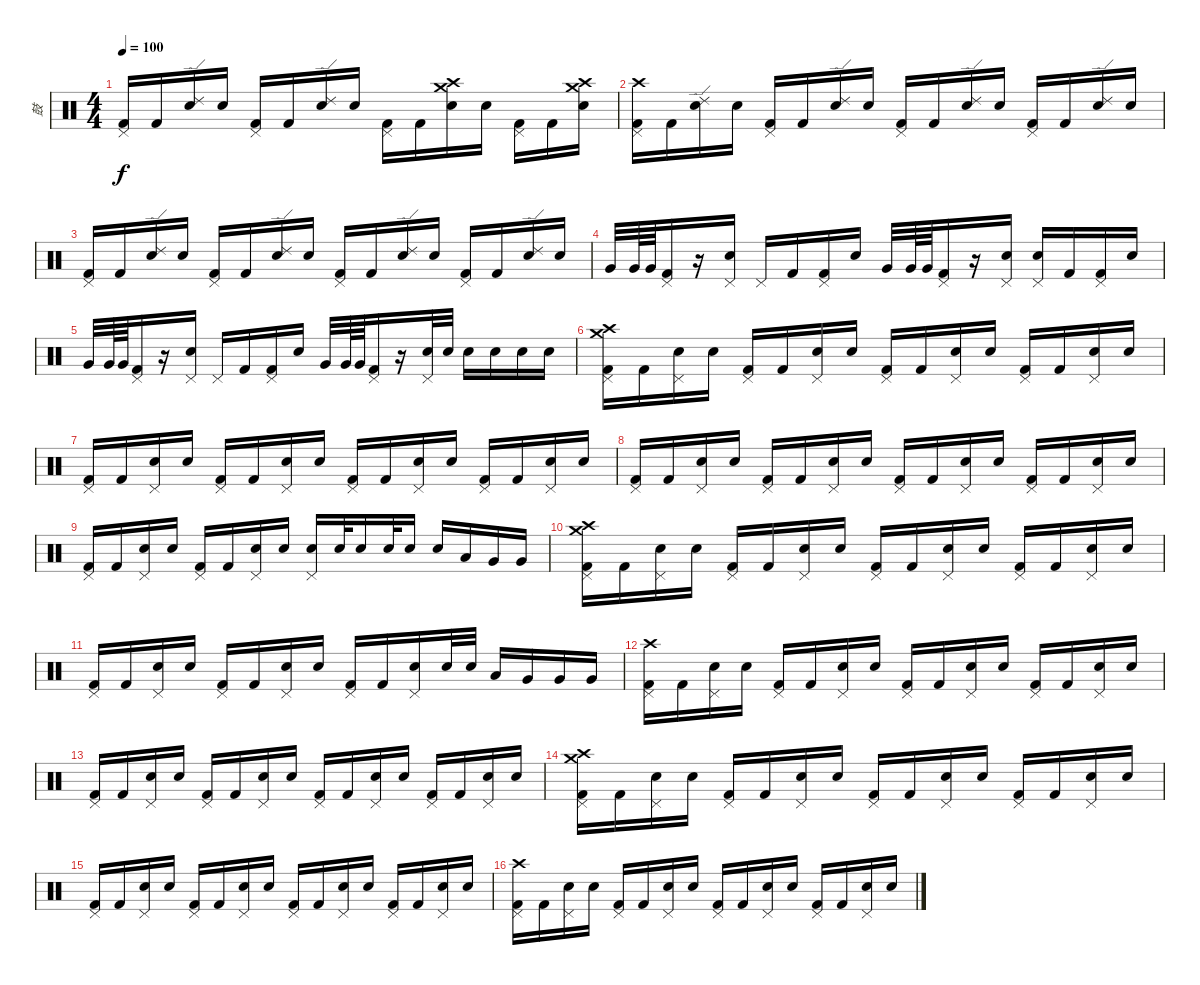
\track ("鼓" "鼓") {instrument percussion}
\staff {score}
\articulation defaults
\ts (4 4)
\tempo 100
\clef neutral
\ks c
("Pedal Hi-Hat (hit)" "Kick (hit) 2").16{dy f} "Kick (hit) 2".16 ("Ride (edge) 2" "Electric Snare (hit)").16 "Snare (hit)".16 ("Pedal Hi-Hat (hit)" "Kick (hit) 2").16 "Kick (hit) 2".16 ("Ride (edge) 2" "Electric Snare (hit)").16 "Snare (hit)".16 ("Pedal Hi-Hat (hit)" "Kick (hit) 2").16 "Kick (hit) 2".16 ("Crash medium (hit)" "Crash high (hit)" "Electric Snare (hit)").16 "Snare (hit)".16 ("Pedal Hi-Hat (hit)" "Kick (hit) 2").16 "Kick (hit) 2".16 ("Crash medium (hit)" "Crash high (hit)" "Electric Snare (hit)").16 |
("Crash high (hit)" "Pedal Hi-Hat (hit)" "Kick (hit) 2").16 "Kick (hit) 2".16 ("Ride (edge) 2" "Electric Snare (hit)").16 "Snare (hit)".16 ("Pedal Hi-Hat (hit)" "Kick (hit) 2").16 "Kick (hit) 2".16 ("Ride (edge) 2" "Electric Snare (hit)").16 "Snare (hit)".16 ("Pedal Hi-Hat (hit)" "Kick (hit) 2").16 "Kick (hit) 2".16 ("Ride (edge) 2" "Electric Snare (hit)").16 "Snare (hit)".16 ("Pedal Hi-Hat (hit)" "Kick (hit) 2").16 "Kick (hit) 2".16 ("Ride (edge) 2" "Electric Snare (hit)").16 "Snare (hit)".16 |
("Pedal Hi-Hat (hit)" "Kick (hit) 2").16 "Kick (hit) 2".16 ("Ride (edge) 2" "Electric Snare (hit)").16 "Snare (hit)".16 ("Pedal Hi-Hat (hit)" "Kick (hit) 2").16 "Kick (hit) 2".16 ("Ride (edge) 2" "Electric Snare (hit)").16 "Snare (hit)".16 ("Pedal Hi-Hat (hit)" "Kick (hit) 2").16 "Kick (hit) 2".16 ("Ride (edge) 2" "Electric Snare (hit)").16 "Snare (hit)".16 ("Pedal Hi-Hat (hit)" "Kick (hit) 2").16 "Kick (hit) 2".16 ("Ride (edge) 2" "Electric Snare (hit)").16 "Snare (hit)".16 |
"Very Low Tom (hit)".32 "Very Low Tom (hit)".64 "Very Low Tom (hit)".64 ("Pedal Hi-Hat (hit)" "Kick (hit) 2").16 r.16 ("Pedal Hi-Hat (hit)" "Electric Snare (hit)").16 "Pedal Hi-Hat (hit)".16 "Kick (hit) 2".16 ("Pedal Hi-Hat (hit)" "Kick (hit) 2").16 "Electric Snare (hit)".16 "Very Low Tom (hit)".32 "Very Low Tom (hit)".64 "Very Low Tom (hit)".64 ("Pedal Hi-Hat (hit)" "Kick (hit) 2").16 r.16 ("Pedal Hi-Hat (hit)" "Electric Snare (hit)").16 ("Pedal Hi-Hat (hit)" "Snare (hit)").16 "Kick (hit) 2".16 ("Pedal Hi-Hat (hit)" "Kick (hit) 2").16 "Electric Snare (hit)".16 |
"Very Low Tom (hit)".32 "Very Low Tom (hit)".64 "Very Low Tom (hit)".64 ("Pedal Hi-Hat (hit)" "Kick (hit) 2").16 r.16 ("Pedal Hi-Hat (hit)" "Electric Snare (hit)").16 "Pedal Hi-Hat (hit)".16 "Kick (hit) 2".16 ("Pedal Hi-Hat (hit)" "Kick (hit) 2").16 "Electric Snare (hit)".16 "Very Low Tom (hit)".32 "Very Low Tom (hit)".64 "Very Low Tom (hit)".64 ("Pedal Hi-Hat (hit)" "Kick (hit) 2").16 r.16 ("Pedal Hi-Hat (hit)" "Electric Snare (hit)").32 "Electric Snare (hit)".32 "Electric Snare (hit)".16 "Electric Snare (hit)".16 "Electric Snare (hit)".16 "Electric Snare (hit)".16 |
("Crash medium (hit)" "Crash high (hit)" "Pedal Hi-Hat (hit)" "Kick (hit) 2").16 "Kick (hit) 2".16 ("Pedal Hi-Hat (hit)" "Electric Snare (hit)").16 "Snare (hit)".16 ("Pedal Hi-Hat (hit)" "Kick (hit) 2").16 "Kick (hit) 2".16 ("Pedal Hi-Hat (hit)" "Electric Snare (hit)").16 "Snare (hit)".16 ("Pedal Hi-Hat (hit)" "Kick (hit) 2").16 "Kick (hit) 2".16 ("Pedal Hi-Hat (hit)" "Electric Snare (hit)").16 "Snare (hit)".16 ("Pedal Hi-Hat (hit)" "Kick (hit) 2").16 "Kick (hit) 2".16 ("Pedal Hi-Hat (hit)" "Electric Snare (hit)").16 "Snare (hit)".16 |
("Pedal Hi-Hat (hit)" "Kick (hit) 2").16 "Kick (hit) 2".16 ("Pedal Hi-Hat (hit)" "Electric Snare (hit)").16 "Snare (hit)".16 ("Pedal Hi-Hat (hit)" "Kick (hit) 2").16 "Kick (hit) 2".16 ("Pedal Hi-Hat (hit)" "Electric Snare (hit)").16 "Snare (hit)".16 ("Pedal Hi-Hat (hit)" "Kick (hit) 2").16 "Kick (hit) 2".16 ("Pedal Hi-Hat (hit)" "Electric Snare (hit)").16 "Snare (hit)".16 ("Pedal Hi-Hat (hit)" "Kick (hit) 2").16 "Kick (hit) 2".16 ("Pedal Hi-Hat (hit)" "Electric Snare (hit)").16 "Snare (hit)".16 |
("Pedal Hi-Hat (hit)" "Kick (hit) 2").16 "Kick (hit) 2".16 ("Pedal Hi-Hat (hit)" "Electric Snare (hit)").16 "Snare (hit)".16 ("Pedal Hi-Hat (hit)" "Kick (hit) 2").16 "Kick (hit) 2".16 ("Pedal Hi-Hat (hit)" "Electric Snare (hit)").16 "Snare (hit)".16 ("Pedal Hi-Hat (hit)" "Kick (hit) 2").16 "Kick (hit) 2".16 ("Pedal Hi-Hat (hit)" "Electric Snare (hit)").16 "Snare (hit)".16 ("Pedal Hi-Hat (hit)" "Kick (hit) 2").16 "Kick (hit) 2".16 ("Pedal Hi-Hat (hit)" "Electric Snare (hit)").16 "Snare (hit)".16 |
("Pedal Hi-Hat (hit)" "Kick (hit) 2").16 "Kick (hit) 2".16 ("Pedal Hi-Hat (hit)" "Electric Snare (hit)").16 "Snare (hit)".16 ("Pedal Hi-Hat (hit)" "Kick (hit) 2").16 "Kick (hit) 2".16 ("Pedal Hi-Hat (hit)" "Electric Snare (hit)").16 "Snare (hit)".16 ("Pedal Hi-Hat (hit)" "Electric Snare (hit)").16 "Electric Snare (hit)".32 "Electric Snare (hit)".16 "Electric Snare (hit)".32 "Electric Snare (hit)".16 "Electric Snare (hit)".16 "Low Tom (hit)".16 "Very Low Tom (hit)".16 "Very Low Tom (hit)".16 |
("Crash medium (hit)" "Crash high (hit)" "Pedal Hi-Hat (hit)" "Kick (hit) 2").16 "Kick (hit) 2".16 ("Pedal Hi-Hat (hit)" "Electric Snare (hit)").16 "Snare (hit)".16 ("Pedal Hi-Hat (hit)" "Kick (hit) 2").16 "Kick (hit) 2".16 ("Pedal Hi-Hat (hit)" "Electric Snare (hit)").16 "Snare (hit)".16 ("Pedal Hi-Hat (hit)" "Kick (hit) 2").16 "Kick (hit) 2".16 ("Pedal Hi-Hat (hit)" "Electric Snare (hit)").16 "Snare (hit)".16 ("Pedal Hi-Hat (hit)" "Kick (hit) 2").16 "Kick (hit) 2".16 ("Pedal Hi-Hat (hit)" "Electric Snare (hit)").16 "Snare (hit)".16 |
("Pedal Hi-Hat (hit)" "Kick (hit) 2").16 "Kick (hit) 2".16 ("Pedal Hi-Hat (hit)" "Electric Snare (hit)").16 "Snare (hit)".16 ("Pedal Hi-Hat (hit)" "Kick (hit) 2").16 "Kick (hit) 2".16 ("Pedal Hi-Hat (hit)" "Electric Snare (hit)").16 "Snare (hit)".16 ("Pedal Hi-Hat (hit)" "Kick (hit) 2").16 "Kick (hit) 2".16 ("Pedal Hi-Hat (hit)" "Electric Snare (hit)").16 "Electric Snare (hit)".32 "Electric Snare (hit)".32 "Low Tom (hit)".16 "Very Low Tom (hit)".16 "Very Low Tom (hit)".16 "Very Low Tom (hit)".16 |
("Crash high (hit)" "Pedal Hi-Hat (hit)" "Kick (hit) 2").16 "Kick (hit) 2".16 ("Pedal Hi-Hat (hit)" "Electric Snare (hit)").16 "Snare (hit)".16 ("Pedal Hi-Hat (hit)" "Kick (hit) 2").16 "Kick (hit) 2".16 ("Pedal Hi-Hat (hit)" "Electric Snare (hit)").16 "Snare (hit)".16 ("Pedal Hi-Hat (hit)" "Kick (hit) 2").16 "Kick (hit) 2".16 ("Pedal Hi-Hat (hit)" "Electric Snare (hit)").16 "Snare (hit)".16 ("Pedal Hi-Hat (hit)" "Kick (hit) 2").16 "Kick (hit) 2".16 ("Pedal Hi-Hat (hit)" "Electric Snare (hit)").16 "Snare (hit)".16 |
("Pedal Hi-Hat (hit)" "Kick (hit) 2").16 "Kick (hit) 2".16 ("Pedal Hi-Hat (hit)" "Electric Snare (hit)").16 "Snare (hit)".16 ("Pedal Hi-Hat (hit)" "Kick (hit) 2").16 "Kick (hit) 2".16 ("Pedal Hi-Hat (hit)" "Electric Snare (hit)").16 "Snare (hit)".16 ("Pedal Hi-Hat (hit)" "Kick (hit) 2").16 "Kick (hit) 2".16 ("Pedal Hi-Hat (hit)" "Electric Snare (hit)").16 "Snare (hit)".16 ("Pedal Hi-Hat (hit)" "Kick (hit) 2").16 "Kick (hit) 2".16 ("Pedal Hi-Hat (hit)" "Electric Snare (hit)").16 "Snare (hit)".16 |
("Crash medium (hit)" "Crash high (hit)" "Pedal Hi-Hat (hit)" "Kick (hit) 2").16 "Kick (hit) 2".16 ("Pedal Hi-Hat (hit)" "Electric Snare (hit)").16 "Snare (hit)".16 ("Pedal Hi-Hat (hit)" "Kick (hit) 2").16 "Kick (hit) 2".16 ("Pedal Hi-Hat (hit)" "Electric Snare (hit)").16 "Snare (hit)".16 ("Pedal Hi-Hat (hit)" "Kick (hit) 2").16 "Kick (hit) 2".16 ("Pedal Hi-Hat (hit)" "Electric Snare (hit)").16 "Snare (hit)".16 ("Pedal Hi-Hat (hit)" "Kick (hit) 2").16 "Kick (hit) 2".16 ("Pedal Hi-Hat (hit)" "Electric Snare (hit)").16 "Snare (hit)".16 |
("Pedal Hi-Hat (hit)" "Kick (hit) 2").16 "Kick (hit) 2".16 ("Pedal Hi-Hat (hit)" "Electric Snare (hit)").16 "Snare (hit)".16 ("Pedal Hi-Hat (hit)" "Kick (hit) 2").16 "Kick (hit) 2".16 ("Pedal Hi-Hat (hit)" "Electric Snare (hit)").16 "Snare (hit)".16 ("Pedal Hi-Hat (hit)" "Kick (hit) 2").16 "Kick (hit) 2".16 ("Pedal Hi-Hat (hit)" "Electric Snare (hit)").16 "Snare (hit)".16 ("Pedal Hi-Hat (hit)" "Kick (hit) 2").16 "Kick (hit) 2".16 ("Pedal Hi-Hat (hit)" "Electric Snare (hit)").16 "Snare (hit)".16 |
("Crash high (hit)" "Pedal Hi-Hat (hit)" "Kick (hit) 2").16 "Kick (hit) 2".16 ("Pedal Hi-Hat (hit)" "Electric Snare (hit)").16 "Snare (hit)".16 ("Pedal Hi-Hat (hit)" "Kick (hit) 2").16 "Kick (hit) 2".16 ("Pedal Hi-Hat (hit)" "Electric Snare (hit)").16 "Snare (hit)".16 ("Pedal Hi-Hat (hit)" "Kick (hit) 2").16 "Kick (hit) 2".16 ("Pedal Hi-Hat (hit)" "Electric Snare (hit)").16 "Snare (hit)".16 ("Pedal Hi-Hat (hit)" "Kick (hit) 2").16 "Kick (hit) 2".16 ("Pedal Hi-Hat (hit)" "Electric Snare (hit)").16 "Snare (hit)".16
